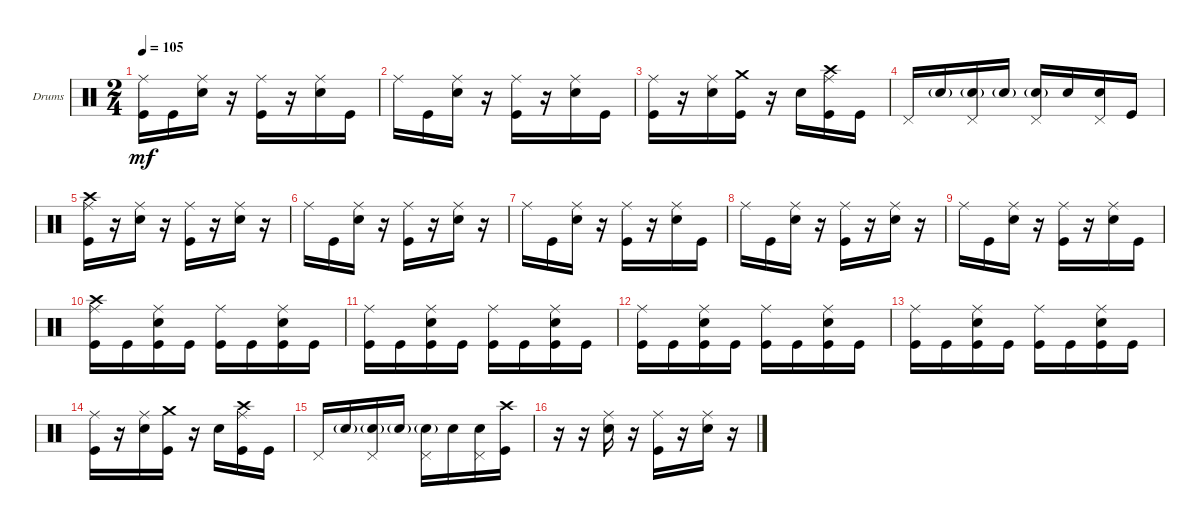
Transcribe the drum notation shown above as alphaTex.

\defaultSystemsLayout 4
\bracketExtendMode groupsimilarinstruments
\firstSystemTrackNameOrientation horizontal
\otherSystemsTrackNameOrientation horizontal
\track ("Godd" "Drums") {instrument percussion}
\staff {score}
\articulation defaults
\ts (2 4)
\tempo 105
\clef neutral
\ks c
("Ride (middle)" "Kick (hit)").16{dy mf} "Kick (hit)".16 ("Ride (middle)" "Snare (hit) 2").16 r.16 ("Ride (middle)" "Kick (hit)").16 r.16 ("Ride (middle)" "Snare (hit) 2").16 "Kick (hit)".16 |
"Ride (middle)".16 "Kick (hit)".16 ("Ride (middle)" "Snare (hit) 2").16 r.16 ("Ride (middle)" "Kick (hit)").16 r.16 ("Ride (middle)" "Snare (hit) 2").16 "Kick (hit)".16 |
("Ride (middle)" "Kick (hit)").16 r.16 ("Ride (middle)" "Snare (hit) 2").16 ("Kick (hit)" "Crash medium (hit)").16 r.16 "Snare (hit) 2".16 ("Ride (middle)" "Crash high (hit)" "Kick (hit)").16 "Kick (hit)".16 |
"Pedal Hi-Hat (hit)".16 "Snare (hit) 2"{g}.16 ("Pedal Hi-Hat (hit)" "Snare (hit) 2"{g}).16 "Snare (hit) 2"{g}.16 ("Pedal Hi-Hat (hit)" "Snare (hit) 2"{g}).16 "Snare (hit) 2".16 ("Pedal Hi-Hat (hit)" "Snare (hit) 2").16 "Kick (hit)".16 |
("Ride (middle)" "Crash high (hit)" "Kick (hit)").16 r.16 ("Ride (middle)" "Snare (hit) 2").16 r.16 ("Ride (middle)" "Kick (hit)").16 r.16 ("Ride (middle)" "Snare (hit) 2").16 r.16 |
"Ride (middle)".16 "Kick (hit)".16 ("Ride (middle)" "Snare (hit) 2").16 r.16 ("Ride (middle)" "Kick (hit)").16 r.16 ("Ride (middle)" "Snare (hit) 2").16 r.16 |
"Ride (middle)".16 "Kick (hit)".16 ("Ride (middle)" "Snare (hit) 2").16 r.16 ("Ride (middle)" "Kick (hit)").16 r.16 ("Ride (middle)" "Snare (hit) 2").16 "Kick (hit)".16 |
"Ride (middle)".16 "Kick (hit)".16 ("Ride (middle)" "Snare (hit) 2").16 r.16 ("Ride (middle)" "Kick (hit)").16 r.16 ("Ride (middle)" "Snare (hit) 2").16 r.16 |
"Ride (middle)".16 "Kick (hit)".16 ("Ride (middle)" "Snare (hit) 2").16 r.16 ("Ride (middle)" "Kick (hit)").16 r.16 ("Ride (middle)" "Snare (hit) 2").16 "Kick (hit)".16 |
("Ride (middle)" "Crash high (hit)" "Kick (hit)").16 "Kick (hit)".16 ("Ride (middle)" "Snare (hit) 2" "Kick (hit)").16 "Kick (hit)".16 ("Ride (middle)" "Kick (hit)").16 "Kick (hit)".16 ("Ride (middle)" "Snare (hit) 2" "Kick (hit)").16 "Kick (hit)".16 |
("Ride (middle)" "Kick (hit)").16 "Kick (hit)".16 ("Ride (middle)" "Snare (hit) 2" "Kick (hit)").16 "Kick (hit)".16 ("Ride (middle)" "Kick (hit)").16 "Kick (hit)".16 ("Ride (middle)" "Snare (hit) 2" "Kick (hit)").16 "Kick (hit)".16 |
("Ride (middle)" "Kick (hit)").16 "Kick (hit)".16 ("Ride (middle)" "Snare (hit) 2" "Kick (hit)").16 "Kick (hit)".16 ("Ride (middle)" "Kick (hit)").16 "Kick (hit)".16 ("Ride (middle)" "Snare (hit) 2" "Kick (hit)").16 "Kick (hit)".16 |
("Ride (middle)" "Kick (hit)").16 "Kick (hit)".16 ("Ride (middle)" "Snare (hit) 2" "Kick (hit)").16 "Kick (hit)".16 ("Ride (middle)" "Kick (hit)").16 "Kick (hit)".16 ("Ride (middle)" "Snare (hit) 2" "Kick (hit)").16 "Kick (hit)".16 |
("Ride (middle)" "Kick (hit)").16 r.16 ("Ride (middle)" "Snare (hit) 2").16 ("Kick (hit)" "Crash medium (hit)").16 r.16 "Snare (hit) 2".16 ("Ride (middle)" "Crash high (hit)" "Kick (hit)").16 "Kick (hit)".16 |
"Pedal Hi-Hat (hit)".16 "Snare (hit) 2"{g}.16 ("Pedal Hi-Hat (hit)" "Snare (hit) 2"{g}).16 "Snare (hit) 2"{g}.16 ("Pedal Hi-Hat (hit)" "Snare (hit) 2"{g}).16 "Snare (hit) 2".16 ("Pedal Hi-Hat (hit)" "Snare (hit) 2").16 ("Kick (hit)" "Crash high (hit)").16 |
r.16 r.16 ("Ride (middle)" "Snare (hit) 2").16 r.16 ("Ride (middle)" "Kick (hit)").16 r.16 ("Ride (middle)" "Snare (hit) 2").16 r.16
